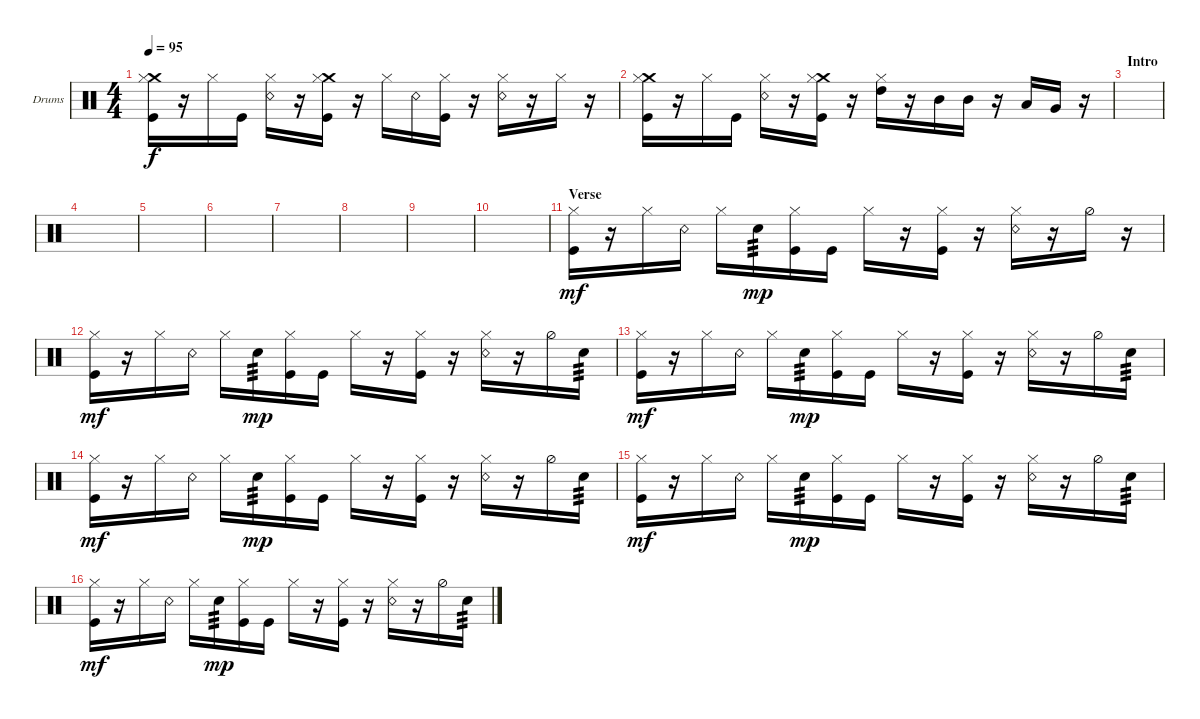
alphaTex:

\defaultSystemsLayout 4
\bracketExtendMode groupsimilarinstruments
\firstSystemTrackNameOrientation horizontal
\otherSystemsTrackNameOrientation horizontal
\track ("Drum [Tomoya]" "Drums") {instrument percussion}
\staff {score}
\articulation defaults
\ts (4 4)
\tempo 95
\clef neutral
\ks c
("Kick (hit)" "Crash medium (hit)" "Hi-Hat (closed)").16{dy f} r.16 "Hi-Hat (closed)".16 "Kick (hit)".16 ("Snare (rim shot)" "Hi-Hat (closed)").16 r.16 ("Kick (hit)" "Crash medium (hit)" "Hi-Hat (closed)").16 r.16 "Hi-Hat (closed)".16 "Snare (rim shot)".16 ("Hi-Hat (closed)" "Kick (hit)").16 r.16 ("Snare (rim shot)" "Hi-Hat (closed)").16 r.16 "Hi-Hat (closed)".16 r.16 |
("Kick (hit)" "Crash medium (hit)" "Hi-Hat (closed)").16 r.16 "Hi-Hat (closed)".16 "Kick (hit)".16 ("Snare (rim shot)" "Hi-Hat (closed)").16 r.16 ("Kick (hit)" "Crash medium (hit)" "Hi-Hat (closed)").16 r.16 ("Hi-Hat (closed)" "High Tom (hit)").16 r.16 "Mid Tom (hit)".16 "Mid Tom (hit)".16 r.16 "Low Tom (hit)".16 "Very Low Tom (hit)".16 r.16 |
\section ("" "Intro")
|
|
|
|
|
|
|
|
\section ("" "Verse")
("Kick (hit)" "Hi-Hat (closed)").16{dy mf} r.16 "Hi-Hat (closed)".16 "Snare (rim shot)".16 "Hi-Hat (closed)".16 "Snare (hit) 2".16{tp 3 dy mp} ("Hi-Hat (closed)" "Kick (hit)").16 "Kick (hit)".16 "Hi-Hat (closed)".16 r.16 ("Kick (hit)" "Hi-Hat (closed)").16 r.16 ("Snare (rim shot)" "Hi-Hat (closed)").16 r.16 "Hi-Hat (half)".16 r.16 |
("Kick (hit)" "Hi-Hat (closed)").16{dy mf} r.16 "Hi-Hat (closed)".16 "Snare (rim shot)".16 "Hi-Hat (closed)".16 "Snare (hit) 2".16{tp 3 dy mp} ("Hi-Hat (closed)" "Kick (hit)").16 "Kick (hit)".16 "Hi-Hat (closed)".16 r.16 ("Kick (hit)" "Hi-Hat (closed)").16 r.16 ("Snare (rim shot)" "Hi-Hat (closed)").16 r.16 "Hi-Hat (half)".16 "Snare (hit) 2".16{tp 3} |
("Kick (hit)" "Hi-Hat (closed)").16{dy mf} r.16 "Hi-Hat (closed)".16 "Snare (rim shot)".16 "Hi-Hat (closed)".16 "Snare (hit) 2".16{tp 3 dy mp} ("Hi-Hat (closed)" "Kick (hit)").16 "Kick (hit)".16 "Hi-Hat (closed)".16 r.16 ("Kick (hit)" "Hi-Hat (closed)").16 r.16 ("Snare (rim shot)" "Hi-Hat (closed)").16 r.16 "Hi-Hat (half)".16 "Snare (hit) 2".16{tp 3} |
("Kick (hit)" "Hi-Hat (closed)").16{dy mf} r.16 "Hi-Hat (closed)".16 "Snare (rim shot)".16 "Hi-Hat (closed)".16 "Snare (hit) 2".16{tp 3 dy mp} ("Hi-Hat (closed)" "Kick (hit)").16 "Kick (hit)".16 "Hi-Hat (closed)".16 r.16 ("Kick (hit)" "Hi-Hat (closed)").16 r.16 ("Snare (rim shot)" "Hi-Hat (closed)").16 r.16 "Hi-Hat (half)".16 "Snare (hit) 2".16{tp 3} |
("Kick (hit)" "Hi-Hat (closed)").16{dy mf} r.16 "Hi-Hat (closed)".16 "Snare (rim shot)".16 "Hi-Hat (closed)".16 "Snare (hit) 2".16{tp 3 dy mp} ("Hi-Hat (closed)" "Kick (hit)").16 "Kick (hit)".16 "Hi-Hat (closed)".16 r.16 ("Kick (hit)" "Hi-Hat (closed)").16 r.16 ("Snare (rim shot)" "Hi-Hat (closed)").16 r.16 "Hi-Hat (half)".16 "Snare (hit) 2".16{tp 3} |
("Kick (hit)" "Hi-Hat (closed)").16{dy mf} r.16 "Hi-Hat (closed)".16 "Snare (rim shot)".16 "Hi-Hat (closed)".16 "Snare (hit) 2".16{tp 3 dy mp} ("Hi-Hat (closed)" "Kick (hit)").16 "Kick (hit)".16 "Hi-Hat (closed)".16 r.16 ("Kick (hit)" "Hi-Hat (closed)").16 r.16 ("Snare (rim shot)" "Hi-Hat (closed)").16 r.16 "Hi-Hat (half)".16 "Snare (hit) 2".16{tp 3}
